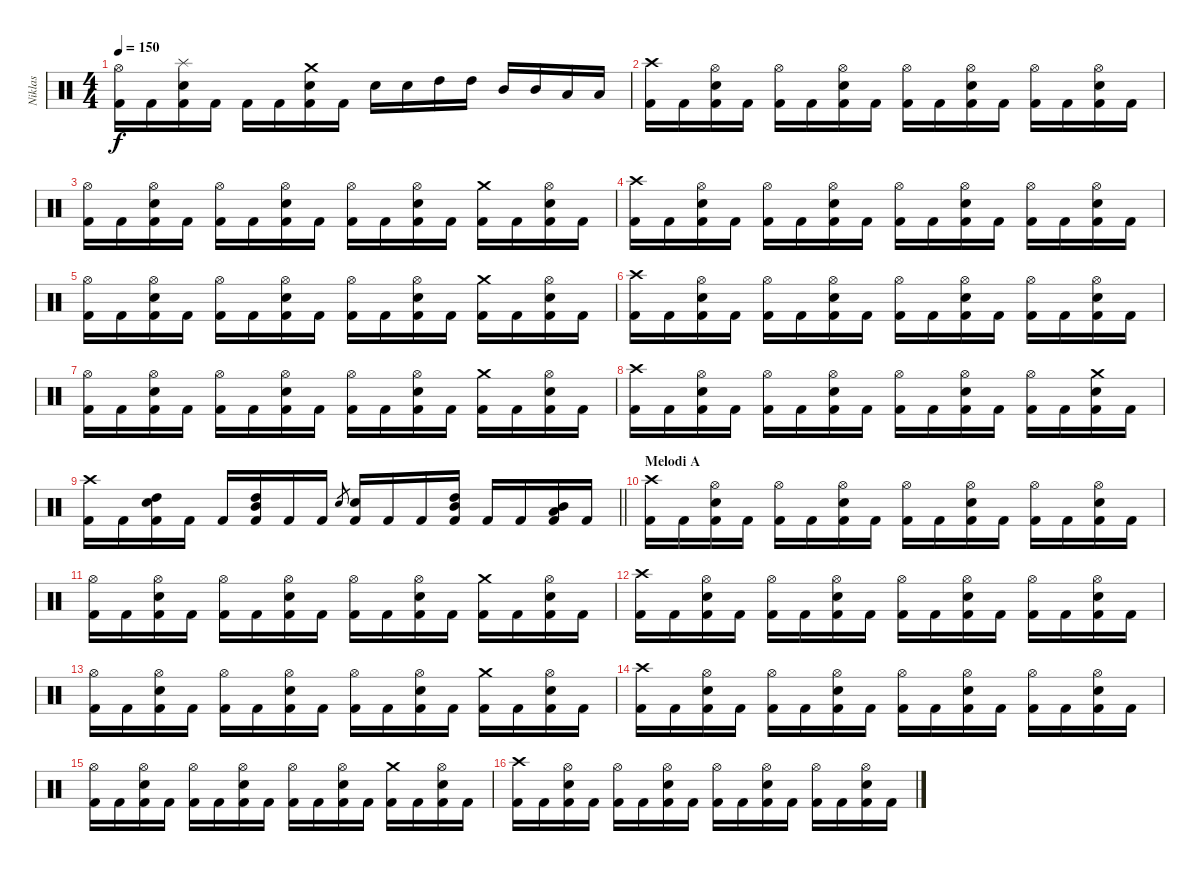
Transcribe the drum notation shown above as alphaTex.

\track ("Niklas" "Niklas") {instrument percussion}
\staff {score}
\articulation defaults
\ts (4 4)
\tempo 150
\clef neutral
\ks c
("Hi-Hat (open)" "Kick (hit) 2").16{dy f} "Kick (hit) 2".16 ("Splash (hit)" "Electric Snare (hit)" "Kick (hit) 2").16 "Kick (hit) 2".16 "Kick (hit) 2".16 "Kick (hit) 2".16 ("Crash medium (hit)" "Electric Snare (hit)" "Kick (hit) 2").16 "Kick (hit) 2".16 "Electric Snare (hit)".16 "Electric Snare (hit)".16 "High Tom (hit)".16 "High Tom (hit)".16 "Mid Tom (hit)".16 "Mid Tom (hit)".16 "Low Tom (hit)".16 "Low Tom (hit)".16 |
("Crash high (hit)" "Kick (hit) 2").16 "Kick (hit) 2".16 ("Hi-Hat (open)" "Electric Snare (hit)" "Kick (hit) 2").16 "Kick (hit) 2".16 ("Hi-Hat (open)" "Kick (hit) 2").16 "Kick (hit) 2".16 ("Hi-Hat (open)" "Electric Snare (hit)" "Kick (hit) 2").16 "Kick (hit) 2".16 ("Hi-Hat (open)" "Kick (hit) 2").16 "Kick (hit) 2".16 ("Hi-Hat (open)" "Electric Snare (hit)" "Kick (hit) 2").16 "Kick (hit) 2".16 ("Hi-Hat (open)" "Kick (hit) 2").16 "Kick (hit) 2".16 ("Hi-Hat (open)" "Electric Snare (hit)" "Kick (hit) 2").16 "Kick (hit) 2".16 |
("Hi-Hat (open)" "Kick (hit) 2").16 "Kick (hit) 2".16 ("Hi-Hat (open)" "Electric Snare (hit)" "Kick (hit) 2").16 "Kick (hit) 2".16 ("Hi-Hat (open)" "Kick (hit) 2").16 "Kick (hit) 2".16 ("Hi-Hat (open)" "Electric Snare (hit)" "Kick (hit) 2").16 "Kick (hit) 2".16 ("Hi-Hat (open)" "Kick (hit) 2").16 "Kick (hit) 2".16 ("Hi-Hat (open)" "Electric Snare (hit)" "Kick (hit) 2").16 "Kick (hit) 2".16 ("Crash medium (hit)" "Kick (hit) 2").16 "Kick (hit) 2".16 ("Hi-Hat (open)" "Electric Snare (hit)" "Kick (hit) 2").16 "Kick (hit) 2".16 |
("Crash high (hit)" "Kick (hit) 2").16 "Kick (hit) 2".16 ("Hi-Hat (open)" "Electric Snare (hit)" "Kick (hit) 2").16 "Kick (hit) 2".16 ("Hi-Hat (open)" "Kick (hit) 2").16 "Kick (hit) 2".16 ("Hi-Hat (open)" "Electric Snare (hit)" "Kick (hit) 2").16 "Kick (hit) 2".16 ("Hi-Hat (open)" "Kick (hit) 2").16 "Kick (hit) 2".16 ("Hi-Hat (open)" "Electric Snare (hit)" "Kick (hit) 2").16 "Kick (hit) 2".16 ("Hi-Hat (open)" "Kick (hit) 2").16 "Kick (hit) 2".16 ("Hi-Hat (open)" "Electric Snare (hit)" "Kick (hit) 2").16 "Kick (hit) 2".16 |
("Hi-Hat (open)" "Kick (hit) 2").16 "Kick (hit) 2".16 ("Hi-Hat (open)" "Electric Snare (hit)" "Kick (hit) 2").16 "Kick (hit) 2".16 ("Hi-Hat (open)" "Kick (hit) 2").16 "Kick (hit) 2".16 ("Hi-Hat (open)" "Electric Snare (hit)" "Kick (hit) 2").16 "Kick (hit) 2".16 ("Hi-Hat (open)" "Kick (hit) 2").16 "Kick (hit) 2".16 ("Hi-Hat (open)" "Electric Snare (hit)" "Kick (hit) 2").16 "Kick (hit) 2".16 ("Crash medium (hit)" "Kick (hit) 2").16 "Kick (hit) 2".16 ("Hi-Hat (open)" "Electric Snare (hit)" "Kick (hit) 2").16 "Kick (hit) 2".16 |
("Crash high (hit)" "Kick (hit) 2").16 "Kick (hit) 2".16 ("Hi-Hat (open)" "Electric Snare (hit)" "Kick (hit) 2").16 "Kick (hit) 2".16 ("Hi-Hat (open)" "Kick (hit) 2").16 "Kick (hit) 2".16 ("Hi-Hat (open)" "Electric Snare (hit)" "Kick (hit) 2").16 "Kick (hit) 2".16 ("Hi-Hat (open)" "Kick (hit) 2").16 "Kick (hit) 2".16 ("Hi-Hat (open)" "Electric Snare (hit)" "Kick (hit) 2").16 "Kick (hit) 2".16 ("Hi-Hat (open)" "Kick (hit) 2").16 "Kick (hit) 2".16 ("Hi-Hat (open)" "Electric Snare (hit)" "Kick (hit) 2").16 "Kick (hit) 2".16 |
("Hi-Hat (open)" "Kick (hit) 2").16 "Kick (hit) 2".16 ("Hi-Hat (open)" "Electric Snare (hit)" "Kick (hit) 2").16 "Kick (hit) 2".16 ("Hi-Hat (open)" "Kick (hit) 2").16 "Kick (hit) 2".16 ("Hi-Hat (open)" "Electric Snare (hit)" "Kick (hit) 2").16 "Kick (hit) 2".16 ("Hi-Hat (open)" "Kick (hit) 2").16 "Kick (hit) 2".16 ("Hi-Hat (open)" "Electric Snare (hit)" "Kick (hit) 2").16 "Kick (hit) 2".16 ("Crash medium (hit)" "Kick (hit) 2").16 "Kick (hit) 2".16 ("Hi-Hat (open)" "Electric Snare (hit)" "Kick (hit) 2").16 "Kick (hit) 2".16 |
("Crash high (hit)" "Kick (hit) 2").16 "Kick (hit) 2".16 ("Hi-Hat (open)" "Electric Snare (hit)" "Kick (hit) 2").16 "Kick (hit) 2".16 ("Hi-Hat (open)" "Kick (hit) 2").16 "Kick (hit) 2".16 ("Hi-Hat (open)" "Electric Snare (hit)" "Kick (hit) 2").16 "Kick (hit) 2".16 ("Hi-Hat (open)" "Kick (hit) 2").16 "Kick (hit) 2".16 ("Hi-Hat (open)" "Electric Snare (hit)" "Kick (hit) 2").16 "Kick (hit) 2".16 ("Hi-Hat (open)" "Kick (hit) 2").16 "Kick (hit) 2".16 ("Crash medium (hit)" "Electric Snare (hit)" "Kick (hit) 2").16 "Kick (hit) 2".16 |
\barLineRight lightlight
("Crash high (hit)" "Kick (hit) 2").16 "Kick (hit) 2".16 ("High Tom (hit)" "Electric Snare (hit)" "Kick (hit) 2").16 "Kick (hit) 2".16 "Kick (hit) 2".16 ("High Tom (hit)" "Mid Tom (hit)" "Kick (hit) 2").16 "Kick (hit) 2".16 "Kick (hit) 2".16 "Electric Snare (hit)".8{gr} ("Electric Snare (hit)" "Kick (hit) 2").16 "Kick (hit) 2".16 "Kick (hit) 2".16 ("High Tom (hit)" "Mid Tom (hit)" "Kick (hit) 2").16 "Kick (hit) 2".16 "Kick (hit) 2".16 ("Mid Tom (hit)" "Low Tom (hit)" "Kick (hit) 2").16 "Kick (hit) 2".16 |
\section ("" "Melodi A")
("Crash high (hit)" "Kick (hit) 2").16 "Kick (hit) 2".16 ("Hi-Hat (open)" "Electric Snare (hit)" "Kick (hit) 2").16 "Kick (hit) 2".16 ("Hi-Hat (open)" "Kick (hit) 2").16 "Kick (hit) 2".16 ("Hi-Hat (open)" "Electric Snare (hit)" "Kick (hit) 2").16 "Kick (hit) 2".16 ("Hi-Hat (open)" "Kick (hit) 2").16 "Kick (hit) 2".16 ("Hi-Hat (open)" "Electric Snare (hit)" "Kick (hit) 2").16 "Kick (hit) 2".16 ("Hi-Hat (open)" "Kick (hit) 2").16 "Kick (hit) 2".16 ("Hi-Hat (open)" "Electric Snare (hit)" "Kick (hit) 2").16 "Kick (hit) 2".16 |
("Hi-Hat (open)" "Kick (hit) 2").16 "Kick (hit) 2".16 ("Hi-Hat (open)" "Electric Snare (hit)" "Kick (hit) 2").16 "Kick (hit) 2".16 ("Hi-Hat (open)" "Kick (hit) 2").16 "Kick (hit) 2".16 ("Hi-Hat (open)" "Electric Snare (hit)" "Kick (hit) 2").16 "Kick (hit) 2".16 ("Hi-Hat (open)" "Kick (hit) 2").16 "Kick (hit) 2".16 ("Hi-Hat (open)" "Electric Snare (hit)" "Kick (hit) 2").16 "Kick (hit) 2".16 ("Crash medium (hit)" "Kick (hit) 2").16 "Kick (hit) 2".16 ("Hi-Hat (open)" "Electric Snare (hit)" "Kick (hit) 2").16 "Kick (hit) 2".16 |
("Crash high (hit)" "Kick (hit) 2").16 "Kick (hit) 2".16 ("Hi-Hat (open)" "Electric Snare (hit)" "Kick (hit) 2").16 "Kick (hit) 2".16 ("Hi-Hat (open)" "Kick (hit) 2").16 "Kick (hit) 2".16 ("Hi-Hat (open)" "Electric Snare (hit)" "Kick (hit) 2").16 "Kick (hit) 2".16 ("Hi-Hat (open)" "Kick (hit) 2").16 "Kick (hit) 2".16 ("Hi-Hat (open)" "Electric Snare (hit)" "Kick (hit) 2").16 "Kick (hit) 2".16 ("Hi-Hat (open)" "Kick (hit) 2").16 "Kick (hit) 2".16 ("Hi-Hat (open)" "Electric Snare (hit)" "Kick (hit) 2").16 "Kick (hit) 2".16 |
("Hi-Hat (open)" "Kick (hit) 2").16 "Kick (hit) 2".16 ("Hi-Hat (open)" "Electric Snare (hit)" "Kick (hit) 2").16 "Kick (hit) 2".16 ("Hi-Hat (open)" "Kick (hit) 2").16 "Kick (hit) 2".16 ("Hi-Hat (open)" "Electric Snare (hit)" "Kick (hit) 2").16 "Kick (hit) 2".16 ("Hi-Hat (open)" "Kick (hit) 2").16 "Kick (hit) 2".16 ("Hi-Hat (open)" "Electric Snare (hit)" "Kick (hit) 2").16 "Kick (hit) 2".16 ("Crash medium (hit)" "Kick (hit) 2").16 "Kick (hit) 2".16 ("Hi-Hat (open)" "Electric Snare (hit)" "Kick (hit) 2").16 "Kick (hit) 2".16 |
("Crash high (hit)" "Kick (hit) 2").16 "Kick (hit) 2".16 ("Hi-Hat (open)" "Electric Snare (hit)" "Kick (hit) 2").16 "Kick (hit) 2".16 ("Hi-Hat (open)" "Kick (hit) 2").16 "Kick (hit) 2".16 ("Hi-Hat (open)" "Electric Snare (hit)" "Kick (hit) 2").16 "Kick (hit) 2".16 ("Hi-Hat (open)" "Kick (hit) 2").16 "Kick (hit) 2".16 ("Hi-Hat (open)" "Electric Snare (hit)" "Kick (hit) 2").16 "Kick (hit) 2".16 ("Hi-Hat (open)" "Kick (hit) 2").16 "Kick (hit) 2".16 ("Hi-Hat (open)" "Electric Snare (hit)" "Kick (hit) 2").16 "Kick (hit) 2".16 |
("Hi-Hat (open)" "Kick (hit) 2").16 "Kick (hit) 2".16 ("Hi-Hat (open)" "Electric Snare (hit)" "Kick (hit) 2").16 "Kick (hit) 2".16 ("Hi-Hat (open)" "Kick (hit) 2").16 "Kick (hit) 2".16 ("Hi-Hat (open)" "Electric Snare (hit)" "Kick (hit) 2").16 "Kick (hit) 2".16 ("Hi-Hat (open)" "Kick (hit) 2").16 "Kick (hit) 2".16 ("Hi-Hat (open)" "Electric Snare (hit)" "Kick (hit) 2").16 "Kick (hit) 2".16 ("Crash medium (hit)" "Kick (hit) 2").16 "Kick (hit) 2".16 ("Hi-Hat (open)" "Electric Snare (hit)" "Kick (hit) 2").16 "Kick (hit) 2".16 |
("Crash high (hit)" "Kick (hit) 2").16 "Kick (hit) 2".16 ("Hi-Hat (open)" "Electric Snare (hit)" "Kick (hit) 2").16 "Kick (hit) 2".16 ("Hi-Hat (open)" "Kick (hit) 2").16 "Kick (hit) 2".16 ("Hi-Hat (open)" "Electric Snare (hit)" "Kick (hit) 2").16 "Kick (hit) 2".16 ("Hi-Hat (open)" "Kick (hit) 2").16 "Kick (hit) 2".16 ("Hi-Hat (open)" "Electric Snare (hit)" "Kick (hit) 2").16 "Kick (hit) 2".16 ("Hi-Hat (open)" "Kick (hit) 2").16 "Kick (hit) 2".16 ("Hi-Hat (open)" "Electric Snare (hit)" "Kick (hit) 2").16 "Kick (hit) 2".16
